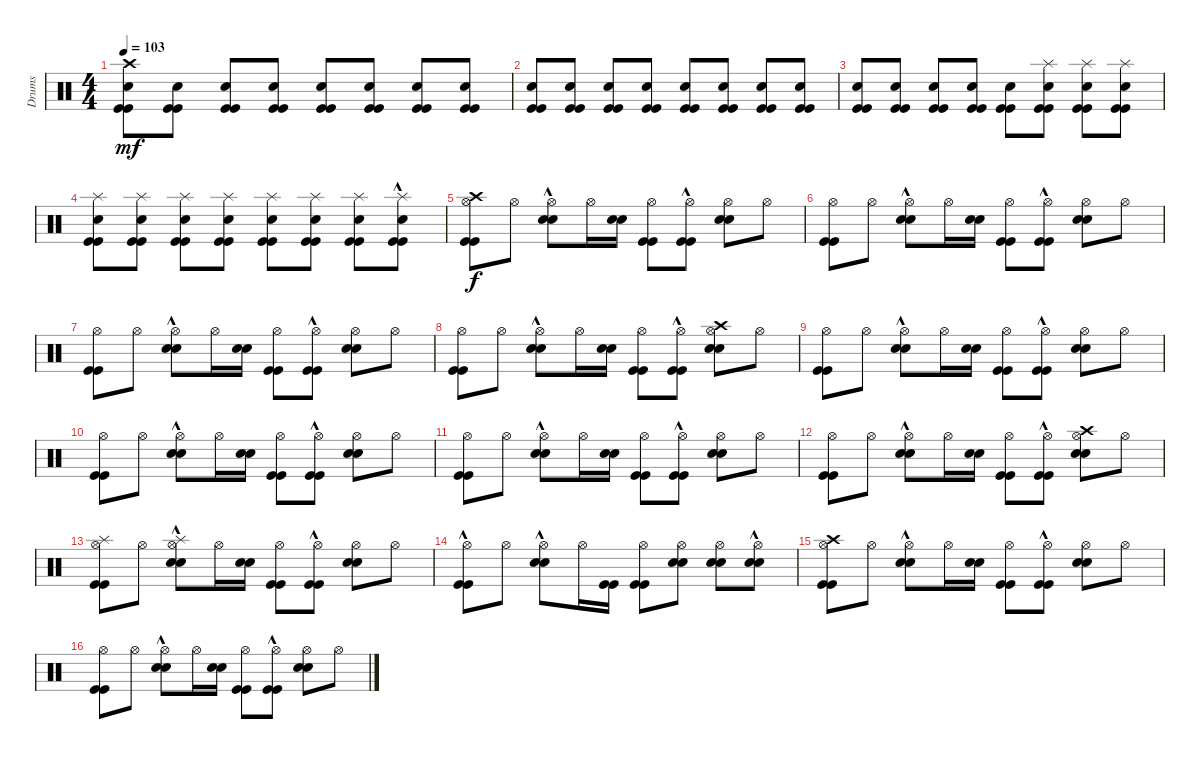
\track ("Drums" "Drums") {instrument percussion}
\staff {score}
\articulation defaults
\ts (4 4)
\tempo 103
\clef neutral
\ks c
("Kick (hit)" "Kick (hit)" "Snare (hit) 2" "Crash high (hit)").8{dy mf} ("Kick (hit)" "Kick (hit)" "Snare (hit) 2").8 ("Kick (hit)" "Kick (hit)" "Snare (hit) 2").8 ("Kick (hit)" "Kick (hit)" "Snare (hit) 2").8 ("Kick (hit)" "Kick (hit)" "Snare (hit) 2").8 ("Kick (hit)" "Kick (hit)" "Snare (hit) 2").8 ("Kick (hit)" "Kick (hit)" "Snare (hit) 2").8 ("Kick (hit)" "Kick (hit)" "Snare (hit) 2").8 |
("Kick (hit)" "Kick (hit)" "Snare (hit) 2").8 ("Kick (hit)" "Kick (hit)" "Snare (hit) 2").8 ("Kick (hit)" "Kick (hit)" "Snare (hit) 2").8 ("Kick (hit)" "Kick (hit)" "Snare (hit) 2").8 ("Kick (hit)" "Kick (hit)" "Snare (hit) 2").8 ("Kick (hit)" "Kick (hit)" "Snare (hit) 2").8 ("Kick (hit)" "Kick (hit)" "Snare (hit) 2").8 ("Kick (hit)" "Kick (hit)" "Snare (hit) 2").8 |
("Kick (hit)" "Kick (hit)" "Snare (hit) 2").8 ("Kick (hit)" "Kick (hit)" "Snare (hit) 2").8 ("Kick (hit)" "Kick (hit)" "Snare (hit) 2").8 ("Kick (hit)" "Kick (hit)" "Snare (hit) 2").8 ("Kick (hit)" "Kick (hit)" "Snare (hit) 2").8 ("Kick (hit)" "Kick (hit)" "Snare (hit) 2" "Splash (hit)").8 ("Kick (hit)" "Kick (hit)" "Snare (hit) 2" "Splash (hit)").8 ("Kick (hit)" "Kick (hit)" "Snare (hit) 2" "Splash (hit)").8 |
("Kick (hit)" "Kick (hit)" "Snare (hit) 2" "Splash (hit)").8 ("Kick (hit)" "Kick (hit)" "Snare (hit) 2" "Splash (hit)").8 ("Kick (hit)" "Kick (hit)" "Snare (hit) 2" "Splash (hit)").8 ("Kick (hit)" "Kick (hit)" "Snare (hit) 2" "Splash (hit)").8 ("Kick (hit)" "Kick (hit)" "Snare (hit) 2" "Splash (hit)").8 ("Kick (hit)" "Kick (hit)" "Snare (hit) 2" "Splash (hit)").8 ("Kick (hit)" "Kick (hit)" "Snare (hit) 2" "Splash (hit)").8 ("Kick (hit)" "Kick (hit)" "Snare (hit) 2"{hac} "Splash (hit)").8 |
("Kick (hit)" "Kick (hit)" "Hi-Hat (open)" "Crash high (hit)").8{dy f} "Hi-Hat (open)".8 ("Snare (hit) 2"{hac} "Snare (hit) 2"{hac} "Hi-Hat (open)").8 "Hi-Hat (open)".16 ("Snare (hit) 2" "Snare (hit) 2").16 ("Kick (hit)" "Kick (hit)" "Hi-Hat (open)").8 ("Kick (hit)"{hac} "Kick (hit)"{hac} "Hi-Hat (open)").8 ("Snare (hit) 2" "Snare (hit) 2" "Hi-Hat (open)").8 "Hi-Hat (open)".8 |
("Kick (hit)" "Kick (hit)" "Hi-Hat (open)").8 "Hi-Hat (open)".8 ("Snare (hit) 2"{hac} "Snare (hit) 2"{hac} "Hi-Hat (open)").8 "Hi-Hat (open)".16 ("Snare (hit) 2" "Snare (hit) 2").16 ("Kick (hit)" "Kick (hit)" "Hi-Hat (open)").8 ("Kick (hit)"{hac} "Kick (hit)"{hac} "Hi-Hat (open)").8 ("Snare (hit) 2" "Snare (hit) 2" "Hi-Hat (open)").8 "Hi-Hat (open)".8 |
("Kick (hit)" "Kick (hit)" "Hi-Hat (open)").8 "Hi-Hat (open)".8 ("Snare (hit) 2"{hac} "Snare (hit) 2"{hac} "Hi-Hat (open)").8 "Hi-Hat (open)".16 ("Snare (hit) 2" "Snare (hit) 2").16 ("Kick (hit)" "Kick (hit)" "Hi-Hat (open)").8 ("Kick (hit)"{hac} "Kick (hit)"{hac} "Hi-Hat (open)").8 ("Snare (hit) 2" "Snare (hit) 2" "Hi-Hat (open)").8 "Hi-Hat (open)".8 |
("Kick (hit)" "Kick (hit)" "Hi-Hat (open)").8 "Hi-Hat (open)".8 ("Snare (hit) 2"{hac} "Snare (hit) 2"{hac} "Hi-Hat (open)").8 "Hi-Hat (open)".16 ("Snare (hit) 2" "Snare (hit) 2").16 ("Kick (hit)" "Kick (hit)" "Hi-Hat (open)").8 ("Kick (hit)"{hac} "Kick (hit)"{hac} "Hi-Hat (open)").8 ("Snare (hit) 2" "Snare (hit) 2" "Hi-Hat (open)" "Crash high (hit)").8 "Hi-Hat (open)".8 |
("Kick (hit)" "Kick (hit)" "Hi-Hat (open)").8 "Hi-Hat (open)".8 ("Snare (hit) 2"{hac} "Snare (hit) 2"{hac} "Hi-Hat (open)").8 "Hi-Hat (open)".16 ("Snare (hit) 2" "Snare (hit) 2").16 ("Kick (hit)" "Kick (hit)" "Hi-Hat (open)").8 ("Kick (hit)"{hac} "Kick (hit)"{hac} "Hi-Hat (open)").8 ("Snare (hit) 2" "Snare (hit) 2" "Hi-Hat (open)").8 "Hi-Hat (open)".8 |
("Kick (hit)" "Kick (hit)" "Hi-Hat (open)").8 "Hi-Hat (open)".8 ("Snare (hit) 2"{hac} "Snare (hit) 2"{hac} "Hi-Hat (open)").8 "Hi-Hat (open)".16 ("Snare (hit) 2" "Snare (hit) 2").16 ("Kick (hit)" "Kick (hit)" "Hi-Hat (open)").8 ("Kick (hit)"{hac} "Kick (hit)"{hac} "Hi-Hat (open)").8 ("Snare (hit) 2" "Snare (hit) 2" "Hi-Hat (open)").8 "Hi-Hat (open)".8 |
("Kick (hit)" "Kick (hit)" "Hi-Hat (open)").8 "Hi-Hat (open)".8 ("Snare (hit) 2"{hac} "Snare (hit) 2"{hac} "Hi-Hat (open)").8 "Hi-Hat (open)".16 ("Snare (hit) 2" "Snare (hit) 2").16 ("Kick (hit)" "Kick (hit)" "Hi-Hat (open)").8 ("Kick (hit)"{hac} "Kick (hit)"{hac} "Hi-Hat (open)").8 ("Snare (hit) 2" "Snare (hit) 2" "Hi-Hat (open)").8 "Hi-Hat (open)".8 |
("Kick (hit)" "Kick (hit)" "Hi-Hat (open)").8 "Hi-Hat (open)".8 ("Snare (hit) 2"{hac} "Snare (hit) 2"{hac} "Hi-Hat (open)").8 "Hi-Hat (open)".16 ("Snare (hit) 2" "Snare (hit) 2").16 ("Kick (hit)" "Kick (hit)" "Hi-Hat (open)").8 ("Kick (hit)"{hac} "Kick (hit)"{hac} "Hi-Hat (open)").8 ("Snare (hit) 2" "Snare (hit) 2" "Hi-Hat (open)" "Crash high (hit)").8 "Hi-Hat (open)".8 |
("Kick (hit)" "Kick (hit)" "Hi-Hat (open)" "Splash (hit)").8 "Hi-Hat (open)".8 ("Snare (hit) 2"{hac} "Snare (hit) 2"{hac} "Hi-Hat (open)" "Splash (hit)").8 "Hi-Hat (open)".16 ("Snare (hit) 2" "Snare (hit) 2").16 ("Kick (hit)" "Kick (hit)" "Hi-Hat (open)").8 ("Kick (hit)"{hac} "Kick (hit)"{hac} "Hi-Hat (open)").8 ("Snare (hit) 2" "Snare (hit) 2" "Hi-Hat (open)").8 "Hi-Hat (open)".8 |
("Kick (hit)"{hac} "Kick (hit)"{hac} "Hi-Hat (open)").8 "Hi-Hat (open)".8 ("Snare (hit) 2"{hac} "Snare (hit) 2"{hac} "Hi-Hat (open)").8 "Hi-Hat (open)".16 ("Kick (hit)" "Kick (hit)").16 ("Kick (hit)" "Kick (hit)" "Hi-Hat (open)").8 ("Snare (hit) 2" "Snare (hit) 2" "Hi-Hat (open)").8 ("Snare (hit) 2" "Snare (hit) 2" "Hi-Hat (open)").8 ("Snare (hit) 2"{hac} "Snare (hit) 2"{hac} "Hi-Hat (open)").8 |
("Kick (hit)" "Kick (hit)" "Hi-Hat (open)" "Crash high (hit)").8 "Hi-Hat (open)".8 ("Snare (hit) 2"{hac} "Snare (hit) 2"{hac} "Hi-Hat (open)").8 "Hi-Hat (open)".16 ("Snare (hit) 2" "Snare (hit) 2").16 ("Kick (hit)" "Kick (hit)" "Hi-Hat (open)").8 ("Kick (hit)"{hac} "Kick (hit)"{hac} "Hi-Hat (open)").8 ("Snare (hit) 2" "Snare (hit) 2" "Hi-Hat (open)").8 "Hi-Hat (open)".8 |
("Kick (hit)" "Kick (hit)" "Hi-Hat (open)").8 "Hi-Hat (open)".8 ("Snare (hit) 2"{hac} "Snare (hit) 2"{hac} "Hi-Hat (open)").8 "Hi-Hat (open)".16 ("Snare (hit) 2" "Snare (hit) 2").16 ("Kick (hit)" "Kick (hit)" "Hi-Hat (open)").8 ("Kick (hit)"{hac} "Kick (hit)"{hac} "Hi-Hat (open)").8 ("Snare (hit) 2" "Snare (hit) 2" "Hi-Hat (open)").8 "Hi-Hat (open)".8
